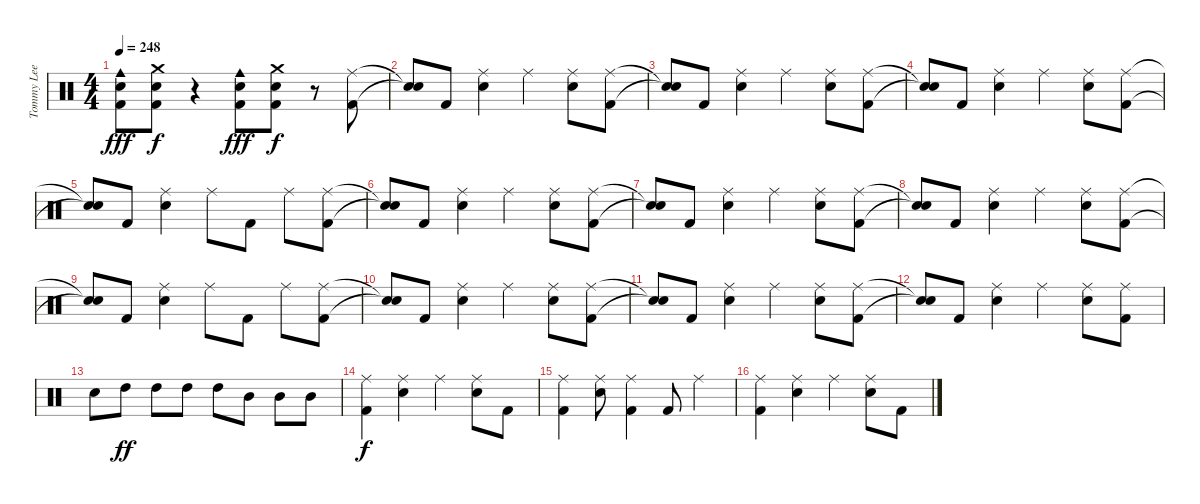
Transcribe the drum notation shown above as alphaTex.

\track ("Tommy Lee" "Tommy Lee") {instrument percussion}
\staff {score}
\articulation defaults
\ts (4 4)
\tempo 248
\clef neutral
\ks c
("Cowbell medium (hit)" "Electric Snare (hit)" "Kick (hit) 2").8{dy fff} ("Crash medium (hit)" "Electric Snare (hit)" "Kick (hit) 2").8{dy f} r.4 ("Cowbell medium (hit)" "Electric Snare (hit)" "Kick (hit) 2").8{dy fff} ("Crash medium (hit)" "Electric Snare (hit)" "Kick (hit) 2").8{dy f} r.8 ("Ride (middle)" "Kick (hit) 2").8 |
("Snare (hit)"{t} "Snare (hit)"{t}).8 "Kick (hit) 2".8 ("Ride (middle)" "Electric Snare (hit)").4 "Ride (middle)".4 ("Ride (middle)" "Electric Snare (hit)").8 ("Ride (middle)" "Kick (hit) 2").8 |
("Snare (hit)"{t} "Snare (hit)"{t}).8 "Kick (hit) 2".8 ("Ride (middle)" "Electric Snare (hit)").4 "Ride (middle)".4 ("Ride (middle)" "Electric Snare (hit)").8 ("Ride (middle)" "Kick (hit) 2").8 |
("Snare (hit)"{t} "Snare (hit)"{t}).8 "Kick (hit) 2".8 ("Ride (middle)" "Electric Snare (hit)").4 "Ride (middle)".4 ("Ride (middle)" "Electric Snare (hit)").8 ("Ride (middle)" "Kick (hit) 2").8 |
("Snare (hit)"{t} "Snare (hit)"{t}).8 "Kick (hit) 2".8 ("Ride (middle)" "Electric Snare (hit)").4 "Ride (middle)".8 "Kick (hit) 2".8 "Ride (middle)".8 ("Ride (middle)" "Kick (hit) 2").8 |
("Snare (hit)"{t} "Snare (hit)"{t}).8 "Kick (hit) 2".8 ("Ride (middle)" "Electric Snare (hit)").4 "Ride (middle)".4 ("Ride (middle)" "Electric Snare (hit)").8 ("Ride (middle)" "Kick (hit) 2").8 |
("Snare (hit)"{t} "Snare (hit)"{t}).8 "Kick (hit) 2".8 ("Ride (middle)" "Electric Snare (hit)").4 "Ride (middle)".4 ("Ride (middle)" "Electric Snare (hit)").8 ("Ride (middle)" "Kick (hit) 2").8 |
("Snare (hit)"{t} "Snare (hit)"{t}).8 "Kick (hit) 2".8 ("Ride (middle)" "Electric Snare (hit)").4 "Ride (middle)".4 ("Ride (middle)" "Electric Snare (hit)").8 ("Ride (middle)" "Kick (hit) 2").8 |
("Snare (hit)"{t} "Snare (hit)"{t}).8 "Kick (hit) 2".8 ("Ride (middle)" "Electric Snare (hit)").4 "Ride (middle)".8 "Kick (hit) 2".8 "Ride (middle)".8 ("Ride (middle)" "Kick (hit) 2").8 |
("Snare (hit)"{t} "Snare (hit)"{t}).8 "Kick (hit) 2".8 ("Ride (middle)" "Electric Snare (hit)").4 "Ride (middle)".4 ("Ride (middle)" "Electric Snare (hit)").8 ("Ride (middle)" "Kick (hit) 2").8 |
("Snare (hit)"{t} "Snare (hit)"{t}).8 "Kick (hit) 2".8 ("Ride (middle)" "Electric Snare (hit)").4 "Ride (middle)".4 ("Ride (middle)" "Electric Snare (hit)").8 ("Ride (middle)" "Kick (hit) 2").8 |
("Snare (hit)"{t} "Snare (hit)"{t}).8 "Kick (hit) 2".8 ("Ride (middle)" "Electric Snare (hit)").4 "Ride (middle)".4 ("Ride (middle)" "Electric Snare (hit)").8 ("Ride (middle)" "Kick (hit) 2").8 |
"Electric Snare (hit)".8 "High Tom (hit)".8{dy ff} "High Tom (hit)".8 "High Tom (hit)".8 "High Tom (hit)".8 "Mid Tom (hit)".8 "Mid Tom (hit)".8 "Mid Tom (hit)".8 |
("Ride (middle)" "Kick (hit) 2").4{dy f} ("Ride (middle)" "Electric Snare (hit)").4 "Ride (middle)".4 ("Ride (middle)" "Electric Snare (hit)").8 "Kick (hit) 2".8 |
("Ride (middle)" "Kick (hit) 2").4 ("Ride (middle)" "Electric Snare (hit)").8 ("Ride (middle)" "Kick (hit) 2").4 "Kick (hit) 2".8 "Ride (middle)".4 |
("Ride (middle)" "Kick (hit) 2").4 ("Ride (middle)" "Electric Snare (hit)").4 "Ride (middle)".4 ("Ride (middle)" "Electric Snare (hit)").8 "Kick (hit) 2".8
